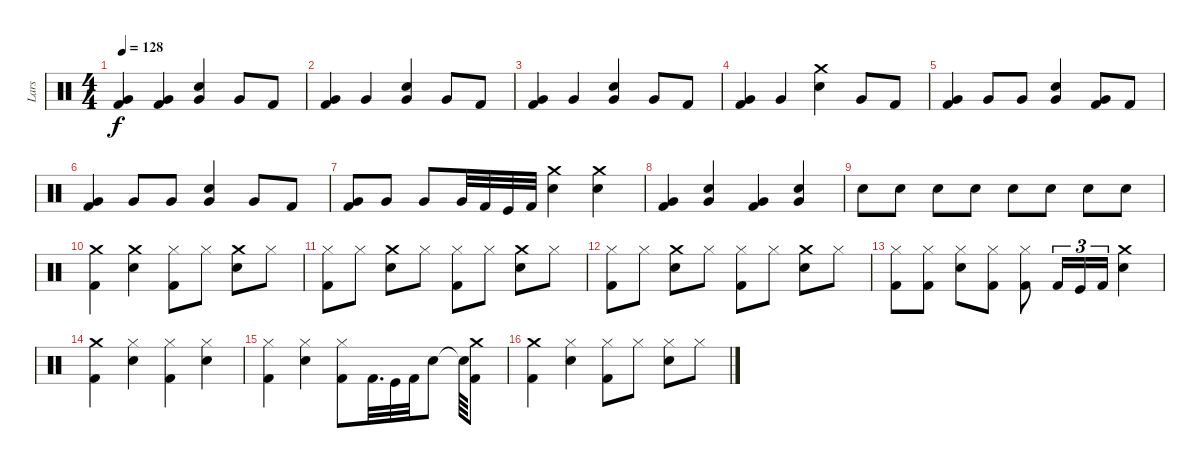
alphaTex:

\track ("Lars" "Lars") {instrument percussion}
\staff {score}
\articulation defaults
\ts (4 4)
\tempo 128
\clef neutral
\ks c
("Kick (hit) 2" "Very Low Tom (hit)").4{dy f} ("Kick (hit) 2" "Very Low Tom (hit)").4 ("Snare (hit) 2" "Very Low Tom (hit)").4 "Very Low Tom (hit)".8 "Kick (hit) 2".8 |
("Kick (hit) 2" "Very Low Tom (hit)").4 "Very Low Tom (hit)".4 ("Snare (hit) 2" "Very Low Tom (hit)").4 "Very Low Tom (hit)".8 "Kick (hit) 2".8 |
("Kick (hit) 2" "Very Low Tom (hit)").4 "Very Low Tom (hit)".4 ("Snare (hit) 2" "Very Low Tom (hit)").4 "Very Low Tom (hit)".8 "Kick (hit) 2".8 |
("Kick (hit) 2" "Very Low Tom (hit)").4 "Very Low Tom (hit)".4 ("Crash medium (hit)" "Snare (hit) 2").4 "Very Low Tom (hit)".8 "Kick (hit) 2".8 |
("Kick (hit) 2" "Very Low Tom (hit)").4 "Very Low Tom (hit)".8 "Very Low Tom (hit)".8 ("Snare (hit) 2" "Very Low Tom (hit)").4 ("Very Low Tom (hit)" "Kick (hit) 2").8 "Kick (hit) 2".8 |
("Kick (hit) 2" "Very Low Tom (hit)").4 "Very Low Tom (hit)".8 "Very Low Tom (hit)".8 ("Snare (hit) 2" "Very Low Tom (hit)").4 "Very Low Tom (hit)".8 "Kick (hit) 2".8 |
("Kick (hit) 2" "Very Low Tom (hit)").8 "Very Low Tom (hit)".8 "Very Low Tom (hit)".8 "Very Low Tom (hit)".32 "Kick (hit) 2".32 "Kick (hit)".32 "Kick (hit) 2".32 ("Crash medium (hit)" "Snare (hit) 2").4 ("Crash medium (hit)" "Snare (hit) 2").4 |
("Very Low Tom (hit)" "Kick (hit) 2").4 ("Snare (hit) 2" "Very Low Tom (hit)").4 ("Very Low Tom (hit)" "Kick (hit) 2").4 ("Snare (hit) 2" "Very Low Tom (hit)").4 |
"Snare (hit) 2".8 "Snare (hit) 2".8 "Snare (hit) 2".8 "Snare (hit) 2".8 "Snare (hit) 2".8 "Snare (hit) 2".8 "Snare (hit) 2".8 "Snare (hit) 2".8 |
("Crash medium (hit)" "Kick (hit) 2").4 ("Crash medium (hit)" "Snare (hit) 2").4 ("Kick (hit) 2" "Hi-Hat (closed)").8 "Hi-Hat (closed)".8 ("Crash medium (hit)" "Snare (hit) 2").8 "Hi-Hat (closed)".8 |
("Hi-Hat (closed)" "Kick (hit) 2").8 "Hi-Hat (closed)".8 ("Crash medium (hit)" "Snare (hit) 2").8 "Hi-Hat (closed)".8 ("Hi-Hat (closed)" "Kick (hit) 2").8 "Hi-Hat (closed)".8 ("Crash medium (hit)" "Snare (hit) 2").8 "Hi-Hat (closed)".8 |
("Hi-Hat (closed)" "Kick (hit) 2").8 "Hi-Hat (closed)".8 ("Crash medium (hit)" "Snare (hit) 2").8 "Hi-Hat (closed)".8 ("Hi-Hat (closed)" "Kick (hit) 2").8 "Hi-Hat (closed)".8 ("Crash medium (hit)" "Snare (hit) 2").8 "Hi-Hat (closed)".8 |
("Hi-Hat (closed)" "Kick (hit) 2").8 ("Hi-Hat (closed)" "Kick (hit) 2").8 ("Snare (hit) 2" "Hi-Hat (closed)").8 ("Hi-Hat (closed)" "Kick (hit) 2").8 ("Hi-Hat (closed)" "Kick (hit) 2").8 "Kick (hit) 2".16{tu (3 2)} "Kick (hit)".16{tu (3 2)} "Kick (hit) 2".16{tu (3 2)} ("Crash medium (hit)" "Snare (hit) 2").4 |
("Crash medium (hit)" "Kick (hit) 2").4 ("Snare (hit) 2" "Hi-Hat (closed)").4 ("Hi-Hat (closed)" "Kick (hit) 2").4 ("Snare (hit) 2" "Hi-Hat (closed)").4 |
("Hi-Hat (closed)" "Kick (hit) 2").4 ("Hi-Hat (closed)" "Snare (hit) 2").4 ("Kick (hit) 2" "Hi-Hat (closed)").8 "Kick (hit) 2".32{d} "Kick (hit)".32 "Kick (hit) 2".32 "Snare (hit) 2".8 "Snare (hit)"{t}.64 ("Crash medium (hit)" "Kick (hit) 2").8 |
("Kick (hit) 2" "Crash medium (hit)").4 ("Hi-Hat (closed)" "Snare (hit) 2").4 ("Hi-Hat (closed)" "Kick (hit) 2").8 "Hi-Hat (closed)".8 ("Snare (hit) 2" "Hi-Hat (closed)").8 "Hi-Hat (closed)".8
